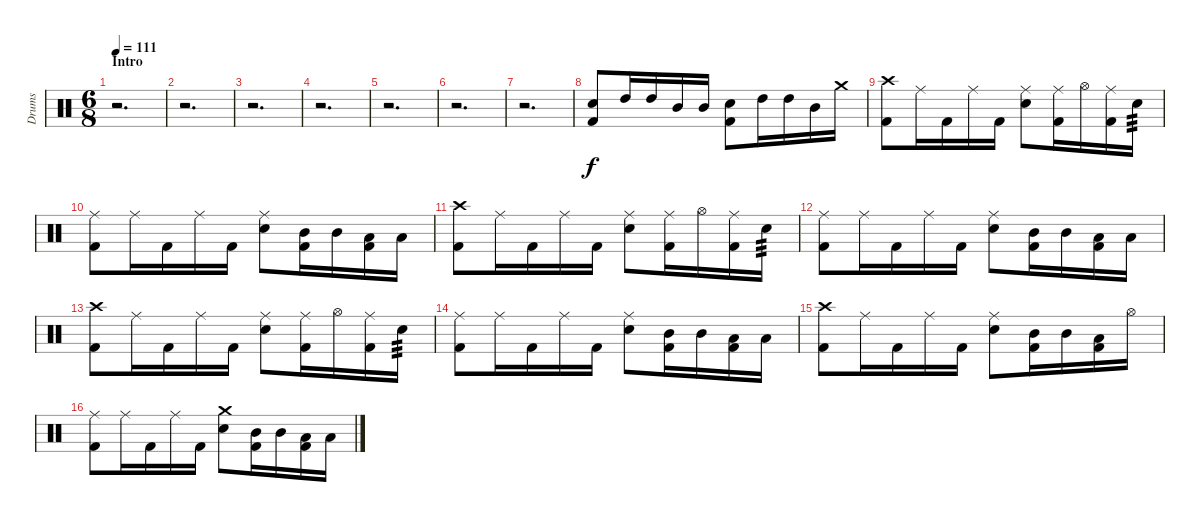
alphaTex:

\track ("Drums" "Drums") {instrument percussion}
\staff {score}
\articulation defaults
\ts (6 8)
\section ("" "Intro")
\tempo 111
\clef neutral
\ks c
r.2{d dy f} |
r.2{d} |
r.2{d} |
r.2{d} |
r.2{d} |
r.2{d} |
r.2{d} |
("Kick (hit) 2" "Snare (hit) 2").8 "High Tom (hit)".16 "High Tom (hit)".16 "Mid Tom (hit)".16 "Mid Tom (hit)".16 ("Snare (hit) 2" "Kick (hit) 2").8 "High Tom (hit)".16 "High Tom (hit)".16 "Mid Tom (hit)".16 "Crash medium (hit)".16 |
("Crash high (hit)" "Kick (hit) 2").8 "Ride (middle)".16 "Kick (hit) 2".16 "Ride (middle)".16 "Kick (hit) 2".16 ("Snare (hit) 2" "Ride (middle)").8 ("Kick (hit) 2" "Ride (middle)").16 "Hi-Hat (open)".16 ("Ride (middle)" "Kick (hit) 2").16 "Snare (hit) 2".16{tp 3} |
("Ride (middle)" "Kick (hit) 2").8 "Ride (middle)".16 "Kick (hit) 2".16 "Ride (middle)".16 "Kick (hit) 2".16 ("Snare (hit) 2" "Ride (middle)").8 ("Kick (hit) 2" "Mid Tom (hit)").16 "Mid Tom (hit)".16 ("Kick (hit) 2" "Low Tom (hit)").16 "Low Tom (hit)".16 |
("Crash high (hit)" "Kick (hit) 2").8 "Ride (middle)".16 "Kick (hit) 2".16 "Ride (middle)".16 "Kick (hit) 2".16 ("Snare (hit) 2" "Ride (middle)").8 ("Kick (hit) 2" "Ride (middle)").16 "Hi-Hat (open)".16 ("Ride (middle)" "Kick (hit) 2").16 "Snare (hit) 2".16{tp 3} |
("Ride (middle)" "Kick (hit) 2").8 "Ride (middle)".16 "Kick (hit) 2".16 "Ride (middle)".16 "Kick (hit) 2".16 ("Snare (hit) 2" "Ride (middle)").8 ("Kick (hit) 2" "Mid Tom (hit)").16 "Mid Tom (hit)".16 ("Kick (hit) 2" "Low Tom (hit)").16 "Low Tom (hit)".16 |
("Crash high (hit)" "Kick (hit) 2").8 "Ride (middle)".16 "Kick (hit) 2".16 "Ride (middle)".16 "Kick (hit) 2".16 ("Snare (hit) 2" "Ride (middle)").8 ("Kick (hit) 2" "Ride (middle)").16 "Hi-Hat (open)".16 ("Ride (middle)" "Kick (hit) 2").16 "Snare (hit) 2".16{tp 3} |
("Ride (middle)" "Kick (hit) 2").8 "Ride (middle)".16 "Kick (hit) 2".16 "Ride (middle)".16 "Kick (hit) 2".16 ("Snare (hit) 2" "Ride (middle)").8 ("Kick (hit) 2" "Mid Tom (hit)").16 "Mid Tom (hit)".16 ("Kick (hit) 2" "Low Tom (hit)").16 "Low Tom (hit)".16 |
("Crash high (hit)" "Kick (hit) 2").8 "Ride (middle)".16 "Kick (hit) 2".16 "Ride (middle)".16 "Kick (hit) 2".16 ("Snare (hit) 2" "Ride (middle)").8 ("Kick (hit) 2" "Mid Tom (hit)").16 "Mid Tom (hit)".16 ("Kick (hit) 2" "Low Tom (hit)").16 "Hi-Hat (open)".16 |
("Ride (middle)" "Kick (hit) 2").8 "Ride (middle)".16 "Kick (hit) 2".16 "Ride (middle)".16 "Kick (hit) 2".16 ("Snare (hit) 2" "Crash medium (hit)").8 ("Kick (hit) 2" "Mid Tom (hit)").16 "Mid Tom (hit)".16 ("Kick (hit) 2" "Low Tom (hit)").16 "Low Tom (hit)".16
